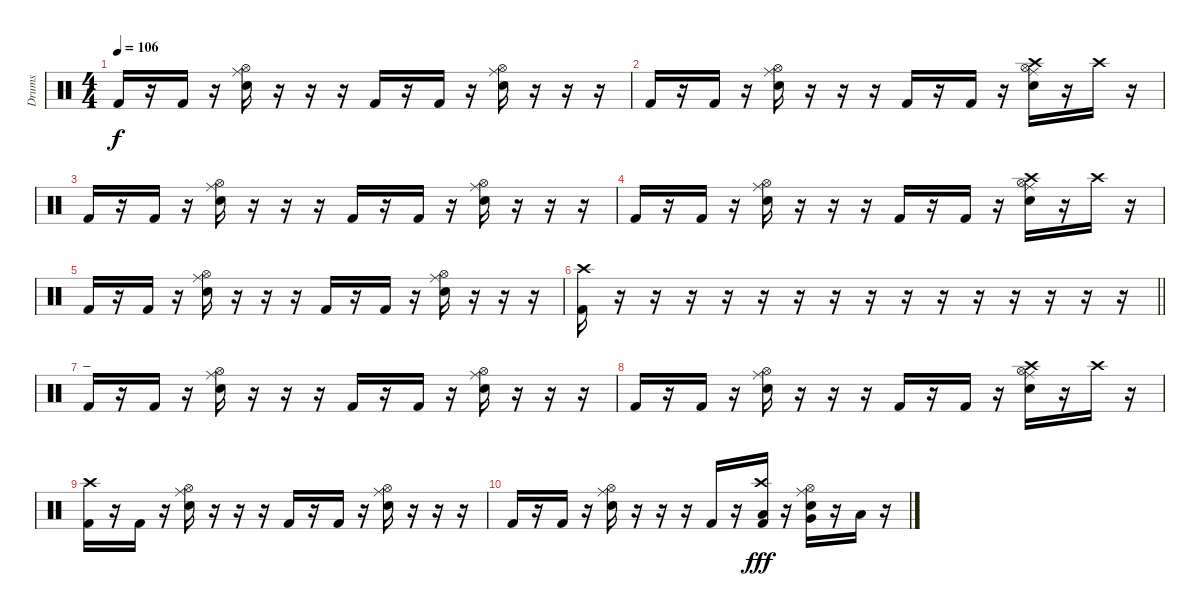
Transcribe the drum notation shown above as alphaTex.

\track ("Drums" "Drums") {instrument percussion}
\staff {score}
\articulation defaults
\ts (4 4)
\tempo 106
\clef neutral
\ks c "Kick (hit) 2".16{dy f}
r.16 "Kick (hit) 2".16 r.16 ("Ride (middle)" "Hi-Hat (open)" "Snare (hit) 2").16 r.16 r.16 r.16 "Kick (hit) 2".16 r.16 "Kick (hit) 2".16 r.16 ("Ride (middle)" "Hi-Hat (open)" "Snare (hit) 2").16 r.16 r.16 r.16 |
"Kick (hit) 2".16 r.16 "Kick (hit) 2".16 r.16 ("Ride (middle)" "Hi-Hat (open)" "Snare (hit) 2").16 r.16 r.16 r.16 "Kick (hit) 2".16 r.16 "Kick (hit) 2".16 r.16 ("Ride (middle)" "Hi-Hat (open)" "Crash high (hit)" "Snare (hit) 2").16 r.16 "Crash high (hit)".16 r.16 |
"Kick (hit) 2".16 r.16 "Kick (hit) 2".16 r.16 ("Ride (middle)" "Hi-Hat (open)" "Snare (hit) 2").16 r.16 r.16 r.16 "Kick (hit) 2".16 r.16 "Kick (hit) 2".16 r.16 ("Ride (middle)" "Hi-Hat (open)" "Snare (hit) 2").16 r.16 r.16 r.16 |
"Kick (hit) 2".16 r.16 "Kick (hit) 2".16 r.16 ("Ride (middle)" "Hi-Hat (open)" "Snare (hit) 2").16 r.16 r.16 r.16 "Kick (hit) 2".16 r.16 "Kick (hit) 2".16 r.16 ("Ride (middle)" "Hi-Hat (open)" "Crash high (hit)" "Snare (hit) 2").16 r.16 "Crash high (hit)".16 r.16 |
"Kick (hit) 2".16 r.16 "Kick (hit) 2".16 r.16 ("Ride (middle)" "Hi-Hat (open)" "Snare (hit) 2").16 r.16 r.16 r.16 "Kick (hit) 2".16 r.16 "Kick (hit) 2".16 r.16 ("Ride (middle)" "Hi-Hat (open)" "Snare (hit) 2").16 r.16 r.16 r.16 |
\barLineRight lightlight
("Crash high (hit)" "Kick (hit) 2").16 r.16 r.16 r.16 r.16 r.16 r.16 r.16 r.16 r.16 r.16 r.16 r.16 r.16 r.16 r.16 |
\section ("" "_")
"Kick (hit) 2".16 r.16 "Kick (hit) 2".16 r.16 ("Ride (middle)" "Hi-Hat (open)" "Snare (hit) 2").16 r.16 r.16 r.16 "Kick (hit) 2".16 r.16 "Kick (hit) 2".16 r.16 ("Ride (middle)" "Hi-Hat (open)" "Snare (hit) 2").16 r.16 r.16 r.16 |
"Kick (hit) 2".16 r.16 "Kick (hit) 2".16 r.16 ("Ride (middle)" "Hi-Hat (open)" "Snare (hit) 2").16 r.16 r.16 r.16 "Kick (hit) 2".16 r.16 "Kick (hit) 2".16 r.16 ("Ride (middle)" "Hi-Hat (open)" "Crash high (hit)" "Snare (hit) 2").16 r.16 "Crash high (hit)".16 r.16 |
("Crash high (hit)" "Kick (hit) 2").16 r.16 "Kick (hit) 2".16 r.16 ("Ride (middle)" "Hi-Hat (open)" "Snare (hit) 2").16 r.16 r.16 r.16 "Kick (hit) 2".16 r.16 "Kick (hit) 2".16 r.16 ("Ride (middle)" "Hi-Hat (open)" "Snare (hit) 2").16 r.16 r.16 r.16 |
"Kick (hit) 2".16 r.16 "Kick (hit) 2".16 r.16 ("Ride (middle)" "Hi-Hat (open)" "Snare (hit) 2").16 r.16 r.16 r.16 "Kick (hit) 2".16 r.16 ("Crash high (hit)" "Low Tom (hit)" "Kick (hit) 2").16{dy fff} r.16 ("Ride (middle)" "Hi-Hat (open)" "Snare (hit) 2" "Very Low Tom (hit)").16 r.16 "Low Floor Tom (hit)".16 r.16
